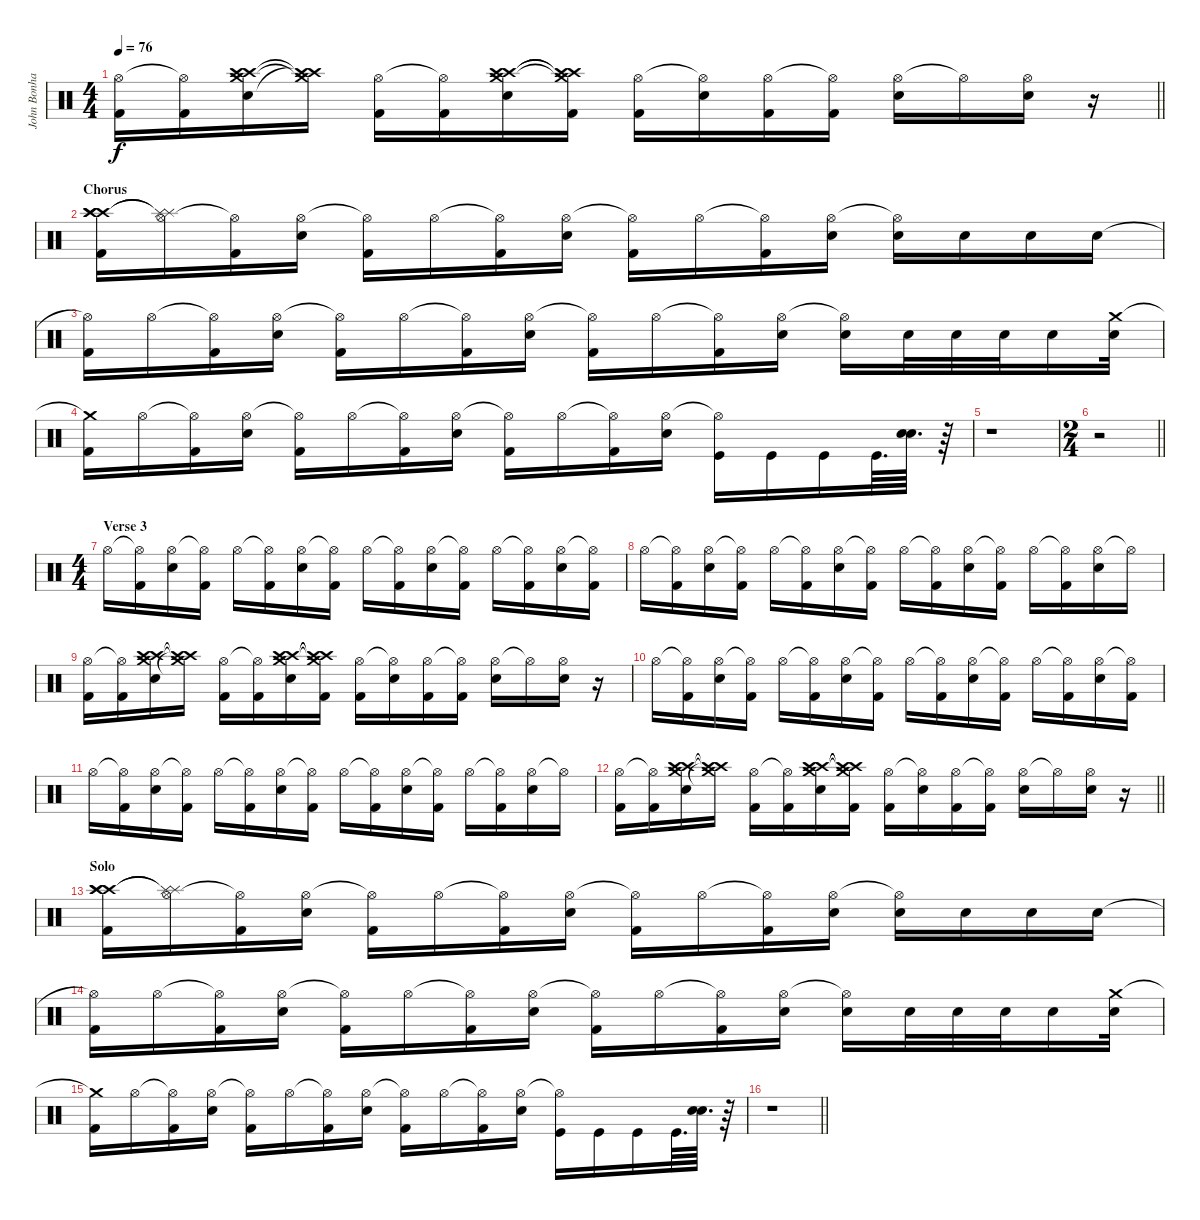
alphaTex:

\track ("John Bonham" "John Bonha") {instrument percussion}
\staff {score}
\articulation defaults
\ts (4 4)
\tempo 76
\clef neutral
\barLineRight lightlight
\ks c
("Hi-Hat (open)" "Kick (hit) 2").16{dy f} ("Hi-Hat (open)"{t} "Kick (hit) 2").16 ("Crash high (hit)" "Crash medium (hit)" "Electric Snare (hit)" "Crash high (hit)").16 ("Crash high (hit)"{t} "Crash medium (hit)"{t} "Crash high (hit)"{t}).16 ("Hi-Hat (open)" "Kick (hit) 2").16 ("Hi-Hat (open)"{t} "Kick (hit) 2").16 ("Crash high (hit)" "Crash medium (hit)" "Electric Snare (hit)" "Crash high (hit)").16 ("Crash high (hit)"{t} "Crash medium (hit)"{t} "Kick (hit) 2" "Crash high (hit)"{t}).16 ("Hi-Hat (open)" "Kick (hit) 2").16 ("Hi-Hat (open)"{t} "Electric Snare (hit)").16 ("Hi-Hat (open)" "Kick (hit) 2").16 ("Hi-Hat (open)"{t} "Kick (hit) 2").16 ("Hi-Hat (open)" "Electric Snare (hit)").16 "Hi-Hat (open)"{t}.16 ("Hi-Hat (open)" "Electric Snare (hit)").16 r.16 |
\section ("" "Chorus")
("Crash high (hit)" "Crash high (hit)" "Crash high (hit)" "Kick (hit) 2").16 ("Hi-Hat (open)" "Splash (hit)"{t} "Splash (hit)"{t}).16 ("Hi-Hat (open)"{t} "Kick (hit) 2").16 ("Hi-Hat (open)" "Electric Snare (hit)").16 ("Hi-Hat (open)"{t} "Kick (hit) 2").16 "Hi-Hat (open)".16 ("Hi-Hat (open)"{t} "Kick (hit) 2").16 ("Hi-Hat (open)" "Electric Snare (hit)").16 ("Hi-Hat (open)"{t} "Kick (hit) 2").16 "Hi-Hat (open)".16 ("Hi-Hat (open)"{t} "Kick (hit) 2").16 ("Hi-Hat (open)" "Electric Snare (hit)").16 ("Hi-Hat (open)"{t} "Electric Snare (hit)").16 "Electric Snare (hit)".16 "Electric Snare (hit)".16 "Electric Snare (hit)".16 |
("Hi-Hat (open)"{t} "Kick (hit) 2").16 "Hi-Hat (open)".16 ("Hi-Hat (open)"{t} "Kick (hit) 2").16 ("Hi-Hat (open)" "Electric Snare (hit)").16 ("Hi-Hat (open)"{t} "Kick (hit) 2").16 "Hi-Hat (open)".16 ("Hi-Hat (open)"{t} "Kick (hit) 2").16 ("Hi-Hat (open)" "Electric Snare (hit)").16 ("Hi-Hat (open)"{t} "Kick (hit) 2").16 "Hi-Hat (open)".16 ("Hi-Hat (open)"{t} "Kick (hit) 2").16 ("Hi-Hat (open)" "Electric Snare (hit)").16 ("Hi-Hat (open)"{t} "Electric Snare (hit)").16 "Electric Snare (hit)".32 "Electric Snare (hit)".32 "Electric Snare (hit)".32 "Electric Snare (hit)".16 ("Crash medium (hit)" "Electric Snare (hit)").32 |
("Crash medium (hit)"{t} "Kick (hit) 2").16 "Hi-Hat (open)".16 ("Hi-Hat (open)"{t} "Kick (hit) 2").16 ("Hi-Hat (open)" "Electric Snare (hit)").16 ("Hi-Hat (open)"{t} "Kick (hit) 2").16 "Hi-Hat (open)".16 ("Hi-Hat (open)"{t} "Kick (hit) 2").16 ("Hi-Hat (open)" "Electric Snare (hit)").16 ("Hi-Hat (open)"{t} "Kick (hit) 2").16 "Hi-Hat (open)".16 ("Hi-Hat (open)"{t} "Kick (hit) 2").16 ("Hi-Hat (open)" "Electric Snare (hit)").16 ("Hi-Hat (open)"{t} "Kick (hit)").16 "Kick (hit)".16 "Kick (hit)".16 "Kick (hit)".64{d} ("Snare (hit) 2" "Electric Snare (hit)").64{d} r.64 |
r.1 |
\ts (2 4)
\barLineRight lightlight
r.2 |
\ts (4 4)
\section ("" "Verse 3")
"Hi-Hat (open)".16 ("Hi-Hat (open)"{t} "Kick (hit) 2").16 ("Hi-Hat (open)" "Electric Snare (hit)").16 ("Hi-Hat (open)"{t} "Kick (hit) 2").16 "Hi-Hat (open)".16 ("Hi-Hat (open)"{t} "Kick (hit) 2").16 ("Hi-Hat (open)" "Electric Snare (hit)").16 ("Hi-Hat (open)"{t} "Kick (hit) 2").16 "Hi-Hat (open)".16 ("Hi-Hat (open)"{t} "Kick (hit) 2").16 ("Hi-Hat (open)" "Electric Snare (hit)").16 ("Hi-Hat (open)"{t} "Kick (hit) 2").16 "Hi-Hat (open)".16 ("Hi-Hat (open)"{t} "Kick (hit) 2").16 ("Hi-Hat (open)" "Electric Snare (hit)").16 ("Hi-Hat (open)"{t} "Kick (hit) 2").16 |
"Hi-Hat (open)".16 ("Hi-Hat (open)"{t} "Kick (hit) 2").16 ("Hi-Hat (open)" "Electric Snare (hit)").16 ("Hi-Hat (open)"{t} "Kick (hit) 2").16 "Hi-Hat (open)".16 ("Hi-Hat (open)"{t} "Kick (hit) 2").16 ("Hi-Hat (open)" "Electric Snare (hit)").16 ("Hi-Hat (open)"{t} "Kick (hit) 2").16 "Hi-Hat (open)".16 ("Hi-Hat (open)"{t} "Kick (hit) 2").16 ("Hi-Hat (open)" "Electric Snare (hit)").16 ("Hi-Hat (open)"{t} "Kick (hit) 2").16 "Hi-Hat (open)".16 ("Hi-Hat (open)"{t} "Kick (hit) 2").16 ("Hi-Hat (open)" "Electric Snare (hit)").16 "Hi-Hat (open)"{t}.16 |
("Hi-Hat (open)" "Kick (hit) 2").16 ("Hi-Hat (open)"{t} "Kick (hit) 2").16 ("Crash high (hit)" "Crash medium (hit)" "Electric Snare (hit)" "Crash high (hit)").16 ("Crash high (hit)"{t} "Crash medium (hit)"{t} "Crash high (hit)"{t}).16 ("Hi-Hat (open)" "Kick (hit) 2").16 ("Hi-Hat (open)"{t} "Kick (hit) 2").16 ("Crash high (hit)" "Crash medium (hit)" "Electric Snare (hit)" "Crash high (hit)").16 ("Crash high (hit)"{t} "Crash medium (hit)"{t} "Kick (hit) 2" "Crash high (hit)"{t}).16 ("Hi-Hat (open)" "Kick (hit) 2").16 ("Hi-Hat (open)"{t} "Electric Snare (hit)").16 ("Hi-Hat (open)" "Kick (hit) 2").16 ("Hi-Hat (open)"{t} "Kick (hit) 2").16 ("Hi-Hat (open)" "Electric Snare (hit)").16 "Hi-Hat (open)"{t}.16 ("Hi-Hat (open)" "Electric Snare (hit)").16 r.16 |
"Hi-Hat (open)".16 ("Hi-Hat (open)"{t} "Kick (hit) 2").16 ("Hi-Hat (open)" "Electric Snare (hit)").16 ("Hi-Hat (open)"{t} "Kick (hit) 2").16 "Hi-Hat (open)".16 ("Hi-Hat (open)"{t} "Kick (hit) 2").16 ("Hi-Hat (open)" "Electric Snare (hit)").16 ("Hi-Hat (open)"{t} "Kick (hit) 2").16 "Hi-Hat (open)".16 ("Hi-Hat (open)"{t} "Kick (hit) 2").16 ("Hi-Hat (open)" "Electric Snare (hit)").16 ("Hi-Hat (open)"{t} "Kick (hit) 2").16 "Hi-Hat (open)".16 ("Hi-Hat (open)"{t} "Kick (hit) 2").16 ("Hi-Hat (open)" "Electric Snare (hit)").16 ("Hi-Hat (open)"{t} "Kick (hit) 2").16 |
"Hi-Hat (open)".16 ("Hi-Hat (open)"{t} "Kick (hit) 2").16 ("Hi-Hat (open)" "Electric Snare (hit)").16 ("Hi-Hat (open)"{t} "Kick (hit) 2").16 "Hi-Hat (open)".16 ("Hi-Hat (open)"{t} "Kick (hit) 2").16 ("Hi-Hat (open)" "Electric Snare (hit)").16 ("Hi-Hat (open)"{t} "Kick (hit) 2").16 "Hi-Hat (open)".16 ("Hi-Hat (open)"{t} "Kick (hit) 2").16 ("Hi-Hat (open)" "Electric Snare (hit)").16 ("Hi-Hat (open)"{t} "Kick (hit) 2").16 "Hi-Hat (open)".16 ("Hi-Hat (open)"{t} "Kick (hit) 2").16 ("Hi-Hat (open)" "Electric Snare (hit)").16 "Hi-Hat (open)"{t}.16 |
\barLineRight lightlight
("Hi-Hat (open)" "Kick (hit) 2").16 ("Hi-Hat (open)"{t} "Kick (hit) 2").16 ("Crash high (hit)" "Crash medium (hit)" "Electric Snare (hit)" "Crash high (hit)").16 ("Crash high (hit)"{t} "Crash medium (hit)"{t} "Crash high (hit)"{t}).16 ("Hi-Hat (open)" "Kick (hit) 2").16 ("Hi-Hat (open)"{t} "Kick (hit) 2").16 ("Crash high (hit)" "Crash medium (hit)" "Electric Snare (hit)" "Crash high (hit)").16 ("Crash high (hit)"{t} "Crash medium (hit)"{t} "Kick (hit) 2" "Crash high (hit)"{t}).16 ("Hi-Hat (open)" "Kick (hit) 2").16 ("Hi-Hat (open)"{t} "Electric Snare (hit)").16 ("Hi-Hat (open)" "Kick (hit) 2").16 ("Hi-Hat (open)"{t} "Kick (hit) 2").16 ("Hi-Hat (open)" "Electric Snare (hit)").16 "Hi-Hat (open)"{t}.16 ("Hi-Hat (open)" "Electric Snare (hit)").16 r.16 |
\section ("" "Solo")
("Crash high (hit)" "Crash high (hit)" "Crash high (hit)" "Kick (hit) 2").16 ("Hi-Hat (open)" "Splash (hit)"{t} "Splash (hit)"{t}).16 ("Hi-Hat (open)"{t} "Kick (hit) 2").16 ("Hi-Hat (open)" "Electric Snare (hit)").16 ("Hi-Hat (open)"{t} "Kick (hit) 2").16 "Hi-Hat (open)".16 ("Hi-Hat (open)"{t} "Kick (hit) 2").16 ("Hi-Hat (open)" "Electric Snare (hit)").16 ("Hi-Hat (open)"{t} "Kick (hit) 2").16 "Hi-Hat (open)".16 ("Hi-Hat (open)"{t} "Kick (hit) 2").16 ("Hi-Hat (open)" "Electric Snare (hit)").16 ("Hi-Hat (open)"{t} "Electric Snare (hit)").16 "Electric Snare (hit)".16 "Electric Snare (hit)".16 "Electric Snare (hit)".16 |
("Hi-Hat (open)"{t} "Kick (hit) 2").16 "Hi-Hat (open)".16 ("Hi-Hat (open)"{t} "Kick (hit) 2").16 ("Hi-Hat (open)" "Electric Snare (hit)").16 ("Hi-Hat (open)"{t} "Kick (hit) 2").16 "Hi-Hat (open)".16 ("Hi-Hat (open)"{t} "Kick (hit) 2").16 ("Hi-Hat (open)" "Electric Snare (hit)").16 ("Hi-Hat (open)"{t} "Kick (hit) 2").16 "Hi-Hat (open)".16 ("Hi-Hat (open)"{t} "Kick (hit) 2").16 ("Hi-Hat (open)" "Electric Snare (hit)").16 ("Hi-Hat (open)"{t} "Electric Snare (hit)").16 "Electric Snare (hit)".32 "Electric Snare (hit)".32 "Electric Snare (hit)".32 "Electric Snare (hit)".16 ("Crash medium (hit)" "Electric Snare (hit)").32 |
("Crash medium (hit)"{t} "Kick (hit) 2").16 "Hi-Hat (open)".16 ("Hi-Hat (open)"{t} "Kick (hit) 2").16 ("Hi-Hat (open)" "Electric Snare (hit)").16 ("Hi-Hat (open)"{t} "Kick (hit) 2").16 "Hi-Hat (open)".16 ("Hi-Hat (open)"{t} "Kick (hit) 2").16 ("Hi-Hat (open)" "Electric Snare (hit)").16 ("Hi-Hat (open)"{t} "Kick (hit) 2").16 "Hi-Hat (open)".16 ("Hi-Hat (open)"{t} "Kick (hit) 2").16 ("Hi-Hat (open)" "Electric Snare (hit)").16 ("Hi-Hat (open)"{t} "Kick (hit)").16 "Kick (hit)".16 "Kick (hit)".16 "Kick (hit)".64{d} ("Snare (hit) 2" "Electric Snare (hit)").64{d} r.64 |
\barLineRight lightlight
r.1
